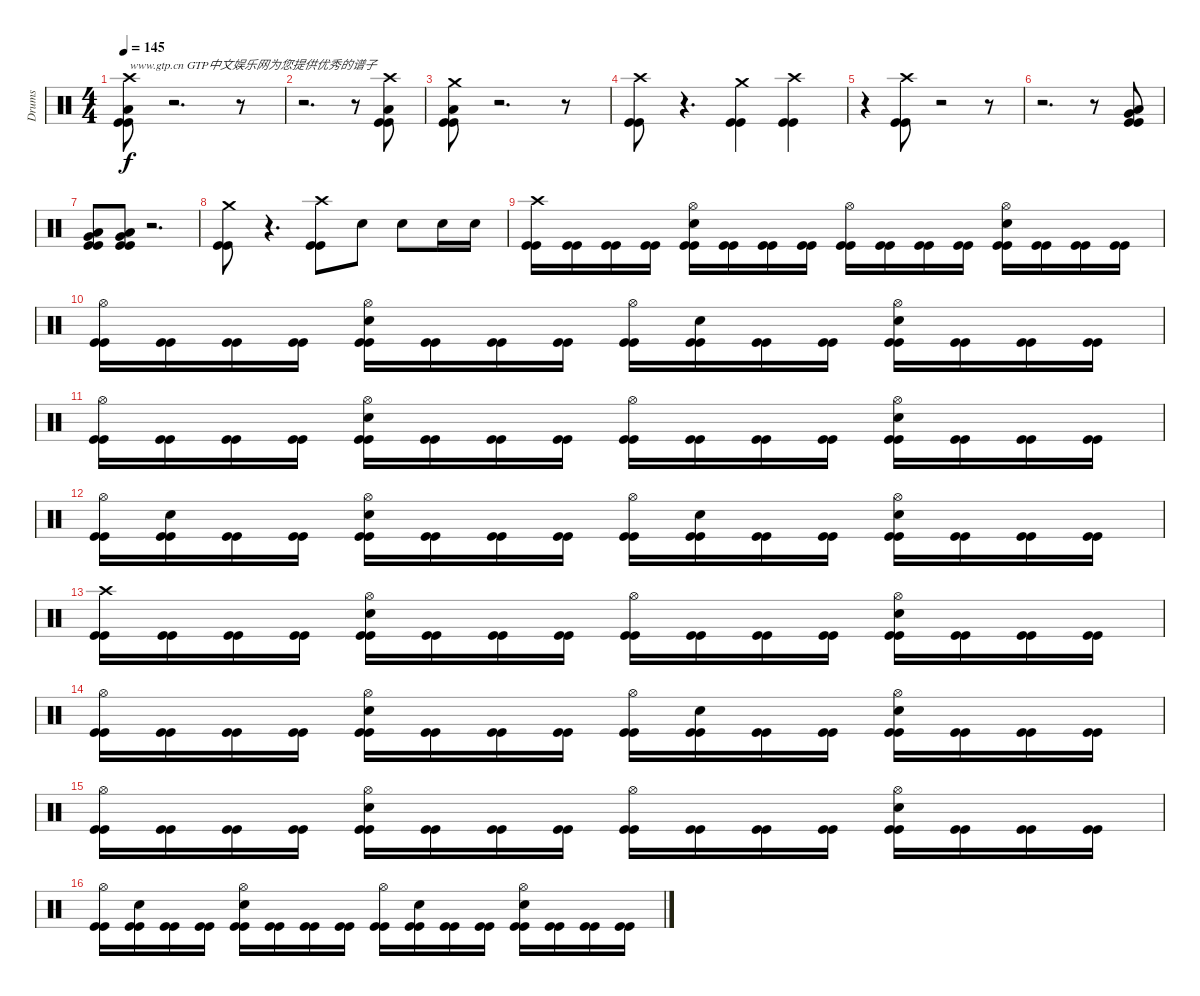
\track ("Drums" "Drums") {instrument percussion}
\staff {score}
\articulation defaults
\ts (4 4)
\tempo 145
\clef neutral
\ks c
("Kick (hit)" "Kick (hit)" "Low Floor Tom (hit)" "Crash high (hit)").8{txt "www.gtp.cn GTP中文娱乐网为您提供优秀的谱子" dy f} r.2{d} r.8 |
r.2{d} r.8 ("Kick (hit)" "Kick (hit)" "Low Floor Tom (hit)" "Crash high (hit)").8 |
("Kick (hit)" "Kick (hit)" "Low Floor Tom (hit)" "Crash medium (hit)").8 r.2{d} r.8 |
("Kick (hit)" "Kick (hit)" "Crash high (hit)").8 r.4{d} ("Kick (hit)" "Kick (hit)" "Crash medium (hit)").4 ("Kick (hit)" "Kick (hit)" "Crash high (hit)").4 |
r.4 ("Kick (hit)" "Kick (hit)" "Crash high (hit)").8 r.2 r.8 |
r.2{d} r.8 ("Kick (hit)" "Kick (hit)" "Low Floor Tom (hit)" "Very Low Tom (hit)").8 |
("Kick (hit)" "Kick (hit)" "Low Floor Tom (hit)" "Very Low Tom (hit)").8 ("Kick (hit)" "Kick (hit)" "Low Floor Tom (hit)" "Very Low Tom (hit)").8 r.2{d} |
("Kick (hit)" "Kick (hit)" "Crash medium (hit)").8 r.4{d} ("Kick (hit)" "Kick (hit)" "Crash high (hit)").8 "Snare (hit) 2".8 "Snare (hit) 2".8 "Snare (hit) 2".16 "Snare (hit) 2".16 |
("Kick (hit)" "Kick (hit)" "Crash high (hit)").16 ("Kick (hit)" "Kick (hit)").16 ("Kick (hit)" "Kick (hit)").16 ("Kick (hit)" "Kick (hit)").16 ("Kick (hit)" "Kick (hit)" "Snare (hit) 2" "Hi-Hat (open)").16 ("Kick (hit)" "Kick (hit)").16 ("Kick (hit)" "Kick (hit)").16 ("Kick (hit)" "Kick (hit)").16 ("Kick (hit)" "Kick (hit)" "Hi-Hat (open)").16 ("Kick (hit)" "Kick (hit)").16 ("Kick (hit)" "Kick (hit)").16 ("Kick (hit)" "Kick (hit)").16 ("Kick (hit)" "Kick (hit)" "Snare (hit) 2" "Hi-Hat (open)").16 ("Kick (hit)" "Kick (hit)").16 ("Kick (hit)" "Kick (hit)").16 ("Kick (hit)" "Kick (hit)").16 |
("Kick (hit)" "Kick (hit)" "Hi-Hat (open)").16 ("Kick (hit)" "Kick (hit)").16 ("Kick (hit)" "Kick (hit)").16 ("Kick (hit)" "Kick (hit)").16 ("Kick (hit)" "Kick (hit)" "Snare (hit) 2" "Hi-Hat (open)").16 ("Kick (hit)" "Kick (hit)").16 ("Kick (hit)" "Kick (hit)").16 ("Kick (hit)" "Kick (hit)").16 ("Kick (hit)" "Kick (hit)" "Hi-Hat (open)").16 ("Kick (hit)" "Kick (hit)" "Snare (hit) 2").16 ("Kick (hit)" "Kick (hit)").16 ("Kick (hit)" "Kick (hit)").16 ("Kick (hit)" "Kick (hit)" "Snare (hit) 2" "Hi-Hat (open)").16 ("Kick (hit)" "Kick (hit)").16 ("Kick (hit)" "Kick (hit)").16 ("Kick (hit)" "Kick (hit)").16 |
("Kick (hit)" "Kick (hit)" "Hi-Hat (open)").16 ("Kick (hit)" "Kick (hit)").16 ("Kick (hit)" "Kick (hit)").16 ("Kick (hit)" "Kick (hit)").16 ("Kick (hit)" "Kick (hit)" "Snare (hit) 2" "Hi-Hat (open)").16 ("Kick (hit)" "Kick (hit)").16 ("Kick (hit)" "Kick (hit)").16 ("Kick (hit)" "Kick (hit)").16 ("Kick (hit)" "Kick (hit)" "Hi-Hat (open)").16 ("Kick (hit)" "Kick (hit)").16 ("Kick (hit)" "Kick (hit)").16 ("Kick (hit)" "Kick (hit)").16 ("Kick (hit)" "Kick (hit)" "Snare (hit) 2" "Hi-Hat (open)").16 ("Kick (hit)" "Kick (hit)").16 ("Kick (hit)" "Kick (hit)").16 ("Kick (hit)" "Kick (hit)").16 |
("Kick (hit)" "Kick (hit)" "Hi-Hat (open)").16 ("Kick (hit)" "Kick (hit)" "Snare (hit) 2").16 ("Kick (hit)" "Kick (hit)").16 ("Kick (hit)" "Kick (hit)").16 ("Kick (hit)" "Kick (hit)" "Snare (hit) 2" "Hi-Hat (open)").16 ("Kick (hit)" "Kick (hit)").16 ("Kick (hit)" "Kick (hit)").16 ("Kick (hit)" "Kick (hit)").16 ("Kick (hit)" "Kick (hit)" "Hi-Hat (open)").16 ("Kick (hit)" "Kick (hit)" "Snare (hit) 2").16 ("Kick (hit)" "Kick (hit)").16 ("Kick (hit)" "Kick (hit)").16 ("Kick (hit)" "Kick (hit)" "Snare (hit) 2" "Hi-Hat (open)").16 ("Kick (hit)" "Kick (hit)").16 ("Kick (hit)" "Kick (hit)").16 ("Kick (hit)" "Kick (hit)").16 |
("Kick (hit)" "Kick (hit)" "Crash high (hit)").16 ("Kick (hit)" "Kick (hit)").16 ("Kick (hit)" "Kick (hit)").16 ("Kick (hit)" "Kick (hit)").16 ("Kick (hit)" "Kick (hit)" "Snare (hit) 2" "Hi-Hat (open)").16 ("Kick (hit)" "Kick (hit)").16 ("Kick (hit)" "Kick (hit)").16 ("Kick (hit)" "Kick (hit)").16 ("Kick (hit)" "Kick (hit)" "Hi-Hat (open)").16 ("Kick (hit)" "Kick (hit)").16 ("Kick (hit)" "Kick (hit)").16 ("Kick (hit)" "Kick (hit)").16 ("Kick (hit)" "Kick (hit)" "Snare (hit) 2" "Hi-Hat (open)").16 ("Kick (hit)" "Kick (hit)").16 ("Kick (hit)" "Kick (hit)").16 ("Kick (hit)" "Kick (hit)").16 |
("Kick (hit)" "Kick (hit)" "Hi-Hat (open)").16 ("Kick (hit)" "Kick (hit)").16 ("Kick (hit)" "Kick (hit)").16 ("Kick (hit)" "Kick (hit)").16 ("Kick (hit)" "Kick (hit)" "Snare (hit) 2" "Hi-Hat (open)").16 ("Kick (hit)" "Kick (hit)").16 ("Kick (hit)" "Kick (hit)").16 ("Kick (hit)" "Kick (hit)").16 ("Kick (hit)" "Kick (hit)" "Hi-Hat (open)").16 ("Kick (hit)" "Kick (hit)" "Snare (hit) 2").16 ("Kick (hit)" "Kick (hit)").16 ("Kick (hit)" "Kick (hit)").16 ("Kick (hit)" "Kick (hit)" "Snare (hit) 2" "Hi-Hat (open)").16 ("Kick (hit)" "Kick (hit)").16 ("Kick (hit)" "Kick (hit)").16 ("Kick (hit)" "Kick (hit)").16 |
("Kick (hit)" "Kick (hit)" "Hi-Hat (open)").16 ("Kick (hit)" "Kick (hit)").16 ("Kick (hit)" "Kick (hit)").16 ("Kick (hit)" "Kick (hit)").16 ("Kick (hit)" "Kick (hit)" "Snare (hit) 2" "Hi-Hat (open)").16 ("Kick (hit)" "Kick (hit)").16 ("Kick (hit)" "Kick (hit)").16 ("Kick (hit)" "Kick (hit)").16 ("Kick (hit)" "Kick (hit)" "Hi-Hat (open)").16 ("Kick (hit)" "Kick (hit)").16 ("Kick (hit)" "Kick (hit)").16 ("Kick (hit)" "Kick (hit)").16 ("Kick (hit)" "Kick (hit)" "Snare (hit) 2" "Hi-Hat (open)").16 ("Kick (hit)" "Kick (hit)").16 ("Kick (hit)" "Kick (hit)").16 ("Kick (hit)" "Kick (hit)").16 |
("Kick (hit)" "Kick (hit)" "Hi-Hat (open)").16 ("Kick (hit)" "Kick (hit)" "Snare (hit) 2").16 ("Kick (hit)" "Kick (hit)").16 ("Kick (hit)" "Kick (hit)").16 ("Kick (hit)" "Kick (hit)" "Snare (hit) 2" "Hi-Hat (open)").16 ("Kick (hit)" "Kick (hit)").16 ("Kick (hit)" "Kick (hit)").16 ("Kick (hit)" "Kick (hit)").16 ("Kick (hit)" "Kick (hit)" "Hi-Hat (open)").16 ("Kick (hit)" "Kick (hit)" "Snare (hit) 2").16 ("Kick (hit)" "Kick (hit)").16 ("Kick (hit)" "Kick (hit)").16 ("Kick (hit)" "Kick (hit)" "Snare (hit) 2" "Hi-Hat (open)").16 ("Kick (hit)" "Kick (hit)").16 ("Kick (hit)" "Kick (hit)").16 ("Kick (hit)" "Kick (hit)").16
